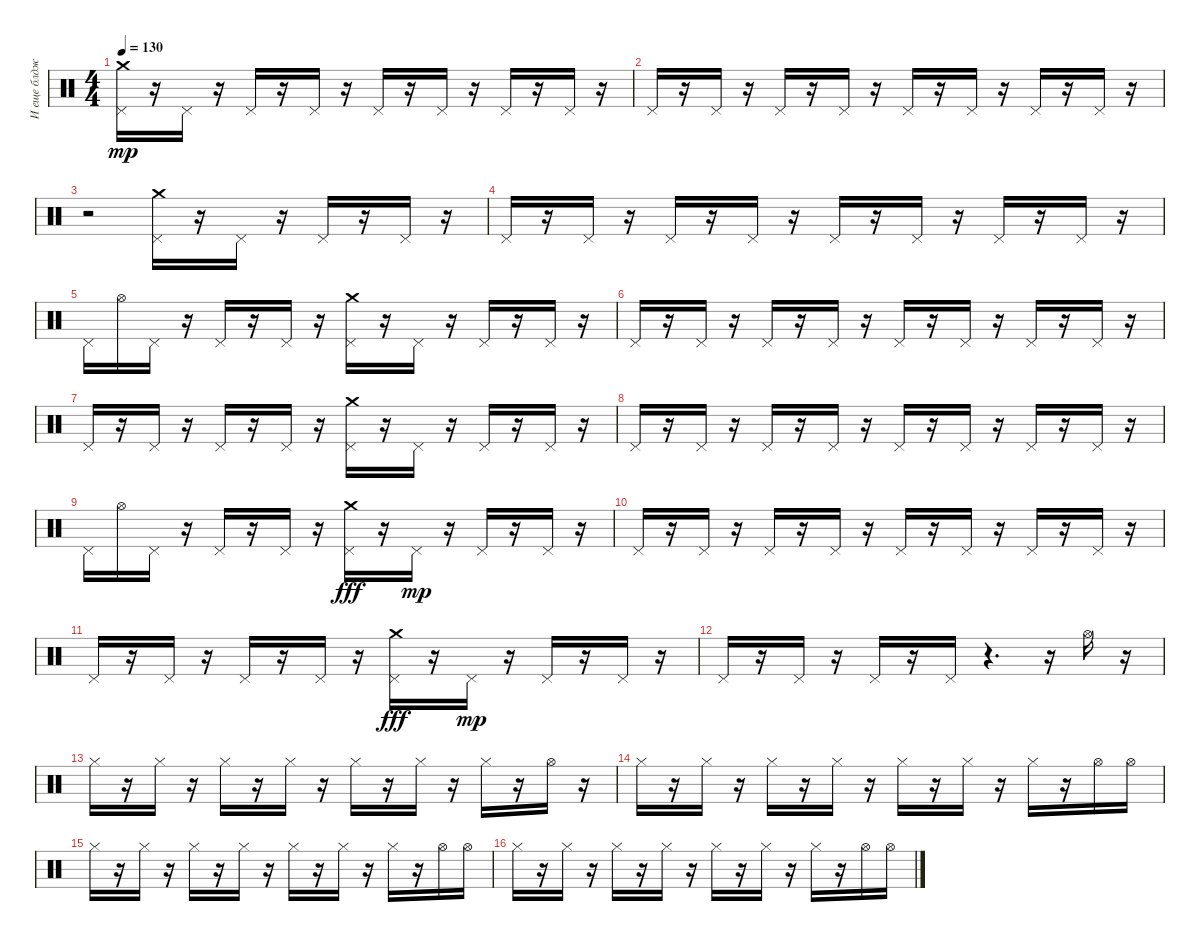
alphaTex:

\track ("И еще блджад" "И еще блдж") {instrument percussion}
\staff {score}
\articulation defaults
\ts (4 4)
\tempo 130
\clef neutral
\ks c
("Crash medium (hit)" "Pedal Hi-Hat (hit)").16{dy mp} r.16 "Pedal Hi-Hat (hit)".16 r.16 "Pedal Hi-Hat (hit)".16 r.16 "Pedal Hi-Hat (hit)".16 r.16 "Pedal Hi-Hat (hit)".16 r.16 "Pedal Hi-Hat (hit)".16 r.16 "Pedal Hi-Hat (hit)".16 r.16 "Pedal Hi-Hat (hit)".16 r.16 |
"Pedal Hi-Hat (hit)".16 r.16 "Pedal Hi-Hat (hit)".16 r.16 "Pedal Hi-Hat (hit)".16 r.16 "Pedal Hi-Hat (hit)".16 r.16 "Pedal Hi-Hat (hit)".16 r.16 "Pedal Hi-Hat (hit)".16 r.16 "Pedal Hi-Hat (hit)".16 r.16 "Pedal Hi-Hat (hit)".16 r.16 |
r.2 ("Crash medium (hit)" "Pedal Hi-Hat (hit)").16 r.16 "Pedal Hi-Hat (hit)".16 r.16 "Pedal Hi-Hat (hit)".16 r.16 "Pedal Hi-Hat (hit)".16 r.16 |
"Pedal Hi-Hat (hit)".16 r.16 "Pedal Hi-Hat (hit)".16 r.16 "Pedal Hi-Hat (hit)".16 r.16 "Pedal Hi-Hat (hit)".16 r.16 "Pedal Hi-Hat (hit)".16 r.16 "Pedal Hi-Hat (hit)".16 r.16 "Pedal Hi-Hat (hit)".16 r.16 "Pedal Hi-Hat (hit)".16 r.16 |
"Pedal Hi-Hat (hit)".16 "Hi-Hat (open)".16 "Pedal Hi-Hat (hit)".16 r.16 "Pedal Hi-Hat (hit)".16 r.16 "Pedal Hi-Hat (hit)".16 r.16 ("Crash medium (hit)" "Pedal Hi-Hat (hit)").16 r.16 "Pedal Hi-Hat (hit)".16 r.16 "Pedal Hi-Hat (hit)".16 r.16 "Pedal Hi-Hat (hit)".16 r.16 |
"Pedal Hi-Hat (hit)".16 r.16 "Pedal Hi-Hat (hit)".16 r.16 "Pedal Hi-Hat (hit)".16 r.16 "Pedal Hi-Hat (hit)".16 r.16 "Pedal Hi-Hat (hit)".16 r.16 "Pedal Hi-Hat (hit)".16 r.16 "Pedal Hi-Hat (hit)".16 r.16 "Pedal Hi-Hat (hit)".16 r.16 |
"Pedal Hi-Hat (hit)".16 r.16 "Pedal Hi-Hat (hit)".16 r.16 "Pedal Hi-Hat (hit)".16 r.16 "Pedal Hi-Hat (hit)".16 r.16 ("Crash medium (hit)" "Pedal Hi-Hat (hit)").16 r.16 "Pedal Hi-Hat (hit)".16 r.16 "Pedal Hi-Hat (hit)".16 r.16 "Pedal Hi-Hat (hit)".16 r.16 |
"Pedal Hi-Hat (hit)".16 r.16 "Pedal Hi-Hat (hit)".16 r.16 "Pedal Hi-Hat (hit)".16 r.16 "Pedal Hi-Hat (hit)".16 r.16 "Pedal Hi-Hat (hit)".16 r.16 "Pedal Hi-Hat (hit)".16 r.16 "Pedal Hi-Hat (hit)".16 r.16 "Pedal Hi-Hat (hit)".16 r.16 |
"Pedal Hi-Hat (hit)".16 "Hi-Hat (open)".16 "Pedal Hi-Hat (hit)".16 r.16 "Pedal Hi-Hat (hit)".16 r.16 "Pedal Hi-Hat (hit)".16 r.16 ("Pedal Hi-Hat (hit)" "Crash medium (hit)").16{dy fff} r.16 "Pedal Hi-Hat (hit)".16{dy mp} r.16 "Pedal Hi-Hat (hit)".16 r.16 "Pedal Hi-Hat (hit)".16 r.16 |
"Pedal Hi-Hat (hit)".16 r.16 "Pedal Hi-Hat (hit)".16 r.16 "Pedal Hi-Hat (hit)".16 r.16 "Pedal Hi-Hat (hit)".16 r.16 "Pedal Hi-Hat (hit)".16 r.16 "Pedal Hi-Hat (hit)".16 r.16 "Pedal Hi-Hat (hit)".16 r.16 "Pedal Hi-Hat (hit)".16 r.16 |
"Pedal Hi-Hat (hit)".16 r.16 "Pedal Hi-Hat (hit)".16 r.16 "Pedal Hi-Hat (hit)".16 r.16 "Pedal Hi-Hat (hit)".16 r.16 ("Pedal Hi-Hat (hit)" "Crash medium (hit)").16{dy fff} r.16 "Pedal Hi-Hat (hit)".16{dy mp} r.16 "Pedal Hi-Hat (hit)".16 r.16 "Pedal Hi-Hat (hit)".16 r.16 |
"Pedal Hi-Hat (hit)".16 r.16 "Pedal Hi-Hat (hit)".16 r.16 "Pedal Hi-Hat (hit)".16 r.16 "Pedal Hi-Hat (hit)".16 r.4{d} r.16 "Hi-Hat (open)".16 r.16 |
"Hi-Hat (closed)".16 r.16 "Hi-Hat (closed)".16 r.16 "Hi-Hat (closed)".16 r.16 "Hi-Hat (closed)".16 r.16 "Hi-Hat (closed)".16 r.16 "Hi-Hat (closed)".16 r.16 "Hi-Hat (closed)".16 r.16 "Hi-Hat (open)".16 r.16 |
"Hi-Hat (closed)".16 r.16 "Hi-Hat (closed)".16 r.16 "Hi-Hat (closed)".16 r.16 "Hi-Hat (closed)".16 r.16 "Hi-Hat (closed)".16 r.16 "Hi-Hat (closed)".16 r.16 "Hi-Hat (closed)".16 r.16 "Hi-Hat (open)".16 "Hi-Hat (open)".16 |
"Hi-Hat (closed)".16 r.16 "Hi-Hat (closed)".16 r.16 "Hi-Hat (closed)".16 r.16 "Hi-Hat (closed)".16 r.16 "Hi-Hat (closed)".16 r.16 "Hi-Hat (closed)".16 r.16 "Hi-Hat (closed)".16 r.16 "Hi-Hat (open)".16 "Hi-Hat (open)".16 |
"Hi-Hat (closed)".16 r.16 "Hi-Hat (closed)".16 r.16 "Hi-Hat (closed)".16 r.16 "Hi-Hat (closed)".16 r.16 "Hi-Hat (closed)".16 r.16 "Hi-Hat (closed)".16 r.16 "Hi-Hat (closed)".16 r.16 "Hi-Hat (open)".16 "Hi-Hat (open)".16
